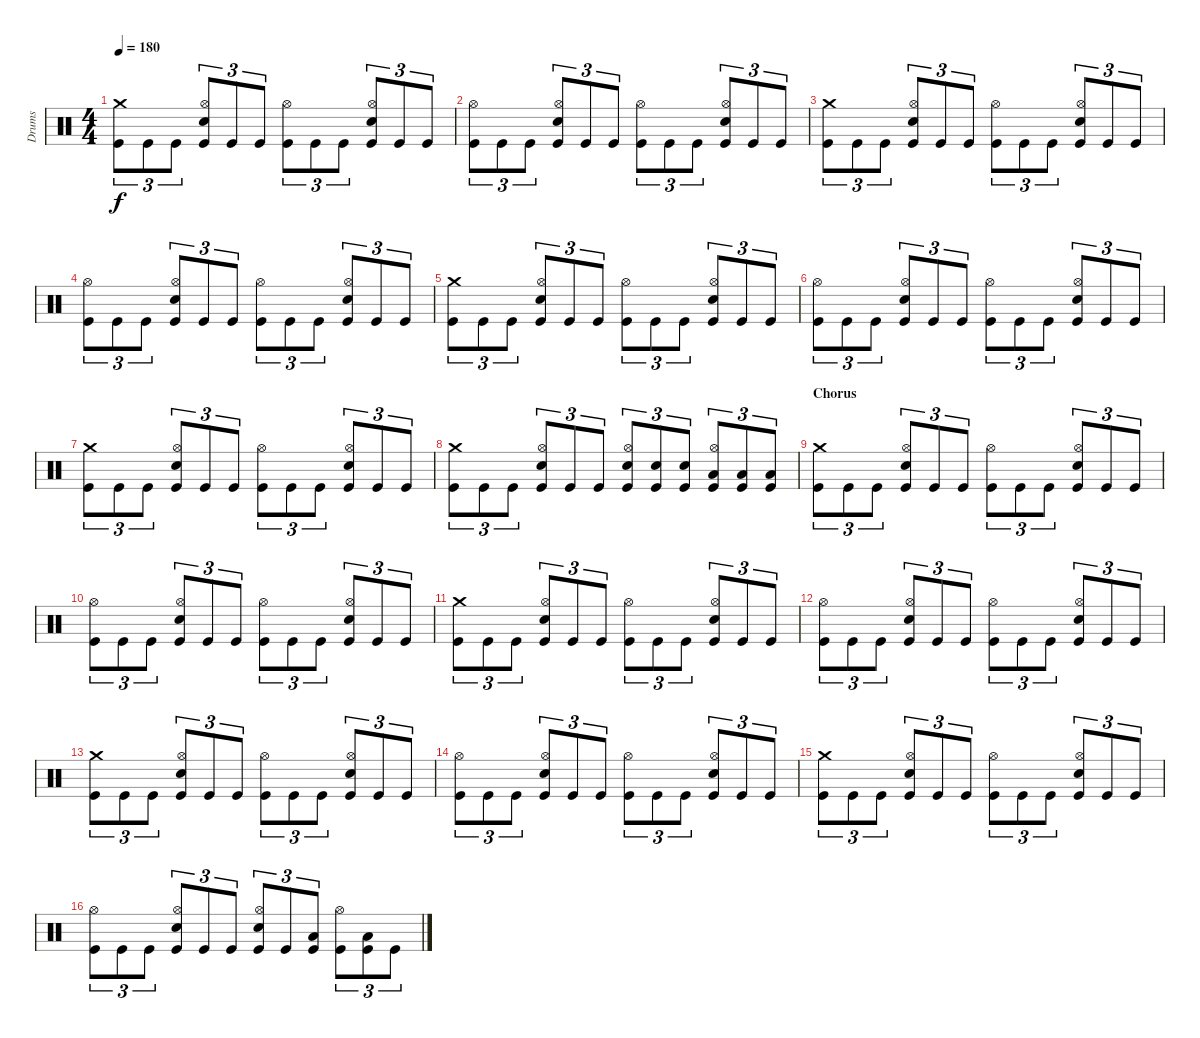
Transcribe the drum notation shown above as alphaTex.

\track ("Drums" "Drums") {instrument percussion}
\staff {score}
\articulation defaults
\ts (4 4)
\tempo 180
\clef neutral
\ks c
("Crash medium (hit)" "Kick (hit)").8{tu (3 2) dy f} "Kick (hit)".8{tu (3 2)} "Kick (hit)".8{tu (3 2)} ("Hi-Hat (open)" "Electric Snare (hit)" "Kick (hit)").8{tu (3 2)} "Kick (hit)".8{tu (3 2)} "Kick (hit)".8{tu (3 2)} ("Hi-Hat (open)" "Kick (hit)").8{tu (3 2)} "Kick (hit)".8{tu (3 2)} "Kick (hit)".8{tu (3 2)} ("Hi-Hat (open)" "Electric Snare (hit)" "Kick (hit)").8{tu (3 2)} "Kick (hit)".8{tu (3 2)} "Kick (hit)".8{tu (3 2)} |
("Hi-Hat (open)" "Kick (hit)").8{tu (3 2)} "Kick (hit)".8{tu (3 2)} "Kick (hit)".8{tu (3 2)} ("Hi-Hat (open)" "Electric Snare (hit)" "Kick (hit)").8{tu (3 2)} "Kick (hit)".8{tu (3 2)} "Kick (hit)".8{tu (3 2)} ("Hi-Hat (open)" "Kick (hit)").8{tu (3 2)} "Kick (hit)".8{tu (3 2)} "Kick (hit)".8{tu (3 2)} ("Hi-Hat (open)" "Electric Snare (hit)" "Kick (hit)").8{tu (3 2)} "Kick (hit)".8{tu (3 2)} "Kick (hit)".8{tu (3 2)} |
("Crash medium (hit)" "Kick (hit)").8{tu (3 2)} "Kick (hit)".8{tu (3 2)} "Kick (hit)".8{tu (3 2)} ("Hi-Hat (open)" "Electric Snare (hit)" "Kick (hit)").8{tu (3 2)} "Kick (hit)".8{tu (3 2)} "Kick (hit)".8{tu (3 2)} ("Hi-Hat (open)" "Kick (hit)").8{tu (3 2)} "Kick (hit)".8{tu (3 2)} "Kick (hit)".8{tu (3 2)} ("Hi-Hat (open)" "Electric Snare (hit)" "Kick (hit)").8{tu (3 2)} "Kick (hit)".8{tu (3 2)} "Kick (hit)".8{tu (3 2)} |
("Hi-Hat (open)" "Kick (hit)").8{tu (3 2)} "Kick (hit)".8{tu (3 2)} "Kick (hit)".8{tu (3 2)} ("Hi-Hat (open)" "Electric Snare (hit)" "Kick (hit)").8{tu (3 2)} "Kick (hit)".8{tu (3 2)} "Kick (hit)".8{tu (3 2)} ("Hi-Hat (open)" "Kick (hit)").8{tu (3 2)} "Kick (hit)".8{tu (3 2)} "Kick (hit)".8{tu (3 2)} ("Hi-Hat (open)" "Electric Snare (hit)" "Kick (hit)").8{tu (3 2)} "Kick (hit)".8{tu (3 2)} "Kick (hit)".8{tu (3 2)} |
("Crash medium (hit)" "Kick (hit)").8{tu (3 2)} "Kick (hit)".8{tu (3 2)} "Kick (hit)".8{tu (3 2)} ("Hi-Hat (open)" "Electric Snare (hit)" "Kick (hit)").8{tu (3 2)} "Kick (hit)".8{tu (3 2)} "Kick (hit)".8{tu (3 2)} ("Hi-Hat (open)" "Kick (hit)").8{tu (3 2)} "Kick (hit)".8{tu (3 2)} "Kick (hit)".8{tu (3 2)} ("Hi-Hat (open)" "Electric Snare (hit)" "Kick (hit)").8{tu (3 2)} "Kick (hit)".8{tu (3 2)} "Kick (hit)".8{tu (3 2)} |
("Hi-Hat (open)" "Kick (hit)").8{tu (3 2)} "Kick (hit)".8{tu (3 2)} "Kick (hit)".8{tu (3 2)} ("Hi-Hat (open)" "Electric Snare (hit)" "Kick (hit)").8{tu (3 2)} "Kick (hit)".8{tu (3 2)} "Kick (hit)".8{tu (3 2)} ("Hi-Hat (open)" "Kick (hit)").8{tu (3 2)} "Kick (hit)".8{tu (3 2)} "Kick (hit)".8{tu (3 2)} ("Hi-Hat (open)" "Electric Snare (hit)" "Kick (hit)").8{tu (3 2)} "Kick (hit)".8{tu (3 2)} "Kick (hit)".8{tu (3 2)} |
("Crash medium (hit)" "Kick (hit)").8{tu (3 2)} "Kick (hit)".8{tu (3 2)} "Kick (hit)".8{tu (3 2)} ("Hi-Hat (open)" "Electric Snare (hit)" "Kick (hit)").8{tu (3 2)} "Kick (hit)".8{tu (3 2)} "Kick (hit)".8{tu (3 2)} ("Hi-Hat (open)" "Kick (hit)").8{tu (3 2)} "Kick (hit)".8{tu (3 2)} "Kick (hit)".8{tu (3 2)} ("Hi-Hat (open)" "Electric Snare (hit)" "Kick (hit)").8{tu (3 2)} "Kick (hit)".8{tu (3 2)} "Kick (hit)".8{tu (3 2)} |
("Crash medium (hit)" "Kick (hit)").8{tu (3 2)} "Kick (hit)".8{tu (3 2)} "Kick (hit)".8{tu (3 2)} ("Hi-Hat (open)" "Electric Snare (hit)" "Kick (hit)").8{tu (3 2)} "Kick (hit)".8{tu (3 2)} "Kick (hit)".8{tu (3 2)} ("Hi-Hat (open)" "Electric Snare (hit)" "Kick (hit)").8{tu (3 2)} ("Electric Snare (hit)" "Kick (hit)").8{tu (3 2)} ("Electric Snare (hit)" "Kick (hit)").8{tu (3 2)} ("Hi-Hat (open)" "Low Tom (hit)" "Kick (hit)").8{tu (3 2)} ("Low Tom (hit)" "Kick (hit)").8{tu (3 2)} ("Low Tom (hit)" "Kick (hit)").8{tu (3 2)} |
\section ("" "Chorus")
("Crash medium (hit)" "Kick (hit)").8{tu (3 2)} "Kick (hit)".8{tu (3 2)} "Kick (hit)".8{tu (3 2)} ("Hi-Hat (open)" "Electric Snare (hit)" "Kick (hit)").8{tu (3 2)} "Kick (hit)".8{tu (3 2)} "Kick (hit)".8{tu (3 2)} ("Hi-Hat (open)" "Kick (hit)").8{tu (3 2)} "Kick (hit)".8{tu (3 2)} "Kick (hit)".8{tu (3 2)} ("Hi-Hat (open)" "Electric Snare (hit)" "Kick (hit)").8{tu (3 2)} "Kick (hit)".8{tu (3 2)} "Kick (hit)".8{tu (3 2)} |
("Hi-Hat (open)" "Kick (hit)").8{tu (3 2)} "Kick (hit)".8{tu (3 2)} "Kick (hit)".8{tu (3 2)} ("Hi-Hat (open)" "Electric Snare (hit)" "Kick (hit)").8{tu (3 2)} "Kick (hit)".8{tu (3 2)} "Kick (hit)".8{tu (3 2)} ("Hi-Hat (open)" "Kick (hit)").8{tu (3 2)} "Kick (hit)".8{tu (3 2)} "Kick (hit)".8{tu (3 2)} ("Hi-Hat (open)" "Electric Snare (hit)" "Kick (hit)").8{tu (3 2)} "Kick (hit)".8{tu (3 2)} "Kick (hit)".8{tu (3 2)} |
("Crash medium (hit)" "Kick (hit)").8{tu (3 2)} "Kick (hit)".8{tu (3 2)} "Kick (hit)".8{tu (3 2)} ("Hi-Hat (open)" "Electric Snare (hit)" "Kick (hit)").8{tu (3 2)} "Kick (hit)".8{tu (3 2)} "Kick (hit)".8{tu (3 2)} ("Hi-Hat (open)" "Kick (hit)").8{tu (3 2)} "Kick (hit)".8{tu (3 2)} "Kick (hit)".8{tu (3 2)} ("Hi-Hat (open)" "Electric Snare (hit)" "Kick (hit)").8{tu (3 2)} "Kick (hit)".8{tu (3 2)} "Kick (hit)".8{tu (3 2)} |
("Hi-Hat (open)" "Kick (hit)").8{tu (3 2)} "Kick (hit)".8{tu (3 2)} "Kick (hit)".8{tu (3 2)} ("Hi-Hat (open)" "Electric Snare (hit)" "Kick (hit)").8{tu (3 2)} "Kick (hit)".8{tu (3 2)} "Kick (hit)".8{tu (3 2)} ("Hi-Hat (open)" "Kick (hit)").8{tu (3 2)} "Kick (hit)".8{tu (3 2)} "Kick (hit)".8{tu (3 2)} ("Hi-Hat (open)" "Electric Snare (hit)" "Kick (hit)").8{tu (3 2)} "Kick (hit)".8{tu (3 2)} "Kick (hit)".8{tu (3 2)} |
("Crash medium (hit)" "Kick (hit)").8{tu (3 2)} "Kick (hit)".8{tu (3 2)} "Kick (hit)".8{tu (3 2)} ("Hi-Hat (open)" "Electric Snare (hit)" "Kick (hit)").8{tu (3 2)} "Kick (hit)".8{tu (3 2)} "Kick (hit)".8{tu (3 2)} ("Hi-Hat (open)" "Kick (hit)").8{tu (3 2)} "Kick (hit)".8{tu (3 2)} "Kick (hit)".8{tu (3 2)} ("Hi-Hat (open)" "Electric Snare (hit)" "Kick (hit)").8{tu (3 2)} "Kick (hit)".8{tu (3 2)} "Kick (hit)".8{tu (3 2)} |
("Hi-Hat (open)" "Kick (hit)").8{tu (3 2)} "Kick (hit)".8{tu (3 2)} "Kick (hit)".8{tu (3 2)} ("Hi-Hat (open)" "Electric Snare (hit)" "Kick (hit)").8{tu (3 2)} "Kick (hit)".8{tu (3 2)} "Kick (hit)".8{tu (3 2)} ("Hi-Hat (open)" "Kick (hit)").8{tu (3 2)} "Kick (hit)".8{tu (3 2)} "Kick (hit)".8{tu (3 2)} ("Hi-Hat (open)" "Electric Snare (hit)" "Kick (hit)").8{tu (3 2)} "Kick (hit)".8{tu (3 2)} "Kick (hit)".8{tu (3 2)} |
("Crash medium (hit)" "Kick (hit)").8{tu (3 2)} "Kick (hit)".8{tu (3 2)} "Kick (hit)".8{tu (3 2)} ("Hi-Hat (open)" "Electric Snare (hit)" "Kick (hit)").8{tu (3 2)} "Kick (hit)".8{tu (3 2)} "Kick (hit)".8{tu (3 2)} ("Hi-Hat (open)" "Kick (hit)").8{tu (3 2)} "Kick (hit)".8{tu (3 2)} "Kick (hit)".8{tu (3 2)} ("Hi-Hat (open)" "Electric Snare (hit)" "Kick (hit)").8{tu (3 2)} "Kick (hit)".8{tu (3 2)} "Kick (hit)".8{tu (3 2)} |
("Hi-Hat (open)" "Kick (hit)").8{tu (3 2)} "Kick (hit)".8{tu (3 2)} "Kick (hit)".8{tu (3 2)} ("Hi-Hat (open)" "Electric Snare (hit)" "Kick (hit)").8{tu (3 2)} "Kick (hit)".8{tu (3 2)} "Kick (hit)".8{tu (3 2)} ("Hi-Hat (open)" "Electric Snare (hit)" "Kick (hit)").8{tu (3 2)} "Kick (hit)".8{tu (3 2)} ("Low Tom (hit)" "Kick (hit)").8{tu (3 2)} ("Hi-Hat (open)" "Kick (hit)").8{tu (3 2)} ("Low Tom (hit)" "Kick (hit)").8{tu (3 2)} "Kick (hit)".8{tu (3 2)}
